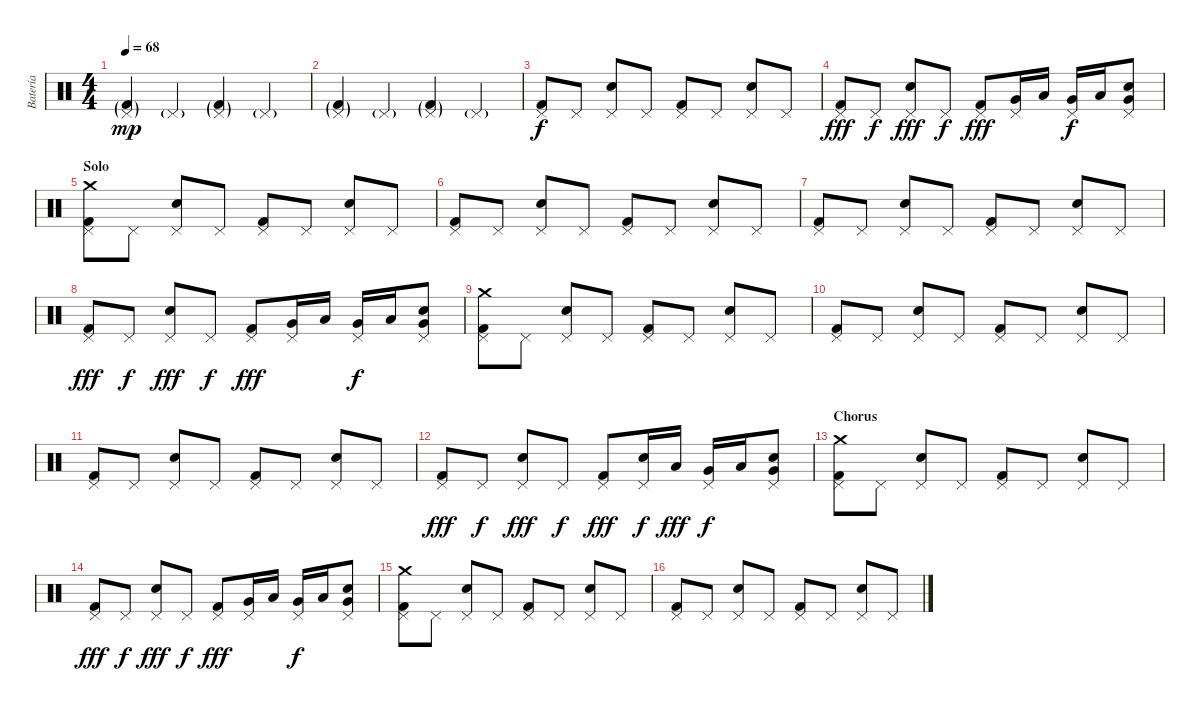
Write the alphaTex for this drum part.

\track ("Batería" "Batería") {instrument percussion}
\staff {score}
\articulation defaults
\ts (4 4)
\tempo 68
\clef neutral
\ks c
("Pedal Hi-Hat (hit)"{g} "Kick (hit) 2"{g}).4{dy mp} "Pedal Hi-Hat (hit)"{g}.4 ("Pedal Hi-Hat (hit)"{g} "Kick (hit) 2"{g}).4 "Pedal Hi-Hat (hit)"{g}.4 |
("Pedal Hi-Hat (hit)"{g} "Kick (hit) 2"{g}).4 "Pedal Hi-Hat (hit)"{g}.4 ("Pedal Hi-Hat (hit)"{g} "Kick (hit) 2"{g}).4 "Pedal Hi-Hat (hit)"{g}.4 |
("Pedal Hi-Hat (hit)" "Kick (hit) 2").8{dy f} "Pedal Hi-Hat (hit)".8 ("Pedal Hi-Hat (hit)" "Electric Snare (hit)").8 "Pedal Hi-Hat (hit)".8 ("Pedal Hi-Hat (hit)" "Kick (hit) 2").8 "Pedal Hi-Hat (hit)".8 ("Pedal Hi-Hat (hit)" "Electric Snare (hit)").8 "Pedal Hi-Hat (hit)".8 |
("Pedal Hi-Hat (hit)" "Kick (hit) 2").8{dy fff} "Pedal Hi-Hat (hit)".8{dy f} ("Pedal Hi-Hat (hit)" "Electric Snare (hit)").8{dy fff} "Pedal Hi-Hat (hit)".8{dy f} ("Pedal Hi-Hat (hit)" "Kick (hit) 2").8{dy fff} ("Pedal Hi-Hat (hit)" "Very Low Tom (hit)").16 "Low Floor Tom (hit)".16 ("Pedal Hi-Hat (hit)" "Very Low Tom (hit)").16{dy f} "Low Floor Tom (hit)".16 ("Pedal Hi-Hat (hit)" "Electric Snare (hit)" "Very Low Tom (hit)").8 |
\section ("" "Solo")
("Pedal Hi-Hat (hit)" "Kick (hit) 2" "Crash medium (hit)").8 "Pedal Hi-Hat (hit)".8 ("Pedal Hi-Hat (hit)" "Electric Snare (hit)").8 "Pedal Hi-Hat (hit)".8 ("Pedal Hi-Hat (hit)" "Kick (hit) 2").8 "Pedal Hi-Hat (hit)".8 ("Pedal Hi-Hat (hit)" "Electric Snare (hit)").8 "Pedal Hi-Hat (hit)".8 |
("Pedal Hi-Hat (hit)" "Kick (hit) 2").8 "Pedal Hi-Hat (hit)".8 ("Pedal Hi-Hat (hit)" "Electric Snare (hit)").8 "Pedal Hi-Hat (hit)".8 ("Pedal Hi-Hat (hit)" "Kick (hit) 2").8 "Pedal Hi-Hat (hit)".8 ("Pedal Hi-Hat (hit)" "Electric Snare (hit)").8 "Pedal Hi-Hat (hit)".8 |
("Pedal Hi-Hat (hit)" "Kick (hit) 2").8 "Pedal Hi-Hat (hit)".8 ("Pedal Hi-Hat (hit)" "Electric Snare (hit)").8 "Pedal Hi-Hat (hit)".8 ("Pedal Hi-Hat (hit)" "Kick (hit) 2").8 "Pedal Hi-Hat (hit)".8 ("Pedal Hi-Hat (hit)" "Electric Snare (hit)").8 "Pedal Hi-Hat (hit)".8 |
("Pedal Hi-Hat (hit)" "Kick (hit) 2").8{dy fff} "Pedal Hi-Hat (hit)".8{dy f} ("Pedal Hi-Hat (hit)" "Electric Snare (hit)").8{dy fff} "Pedal Hi-Hat (hit)".8{dy f} ("Pedal Hi-Hat (hit)" "Kick (hit) 2").8{dy fff} ("Pedal Hi-Hat (hit)" "Very Low Tom (hit)").16 "Low Floor Tom (hit)".16 ("Pedal Hi-Hat (hit)" "Very Low Tom (hit)").16{dy f} "Low Floor Tom (hit)".16 ("Pedal Hi-Hat (hit)" "Electric Snare (hit)" "Very Low Tom (hit)").8 |
("Pedal Hi-Hat (hit)" "Kick (hit) 2" "Crash medium (hit)").8 "Pedal Hi-Hat (hit)".8 ("Pedal Hi-Hat (hit)" "Electric Snare (hit)").8 "Pedal Hi-Hat (hit)".8 ("Pedal Hi-Hat (hit)" "Kick (hit) 2").8 "Pedal Hi-Hat (hit)".8 ("Pedal Hi-Hat (hit)" "Electric Snare (hit)").8 "Pedal Hi-Hat (hit)".8 |
("Pedal Hi-Hat (hit)" "Kick (hit) 2").8 "Pedal Hi-Hat (hit)".8 ("Pedal Hi-Hat (hit)" "Electric Snare (hit)").8 "Pedal Hi-Hat (hit)".8 ("Pedal Hi-Hat (hit)" "Kick (hit) 2").8 "Pedal Hi-Hat (hit)".8 ("Pedal Hi-Hat (hit)" "Electric Snare (hit)").8 "Pedal Hi-Hat (hit)".8 |
("Pedal Hi-Hat (hit)" "Kick (hit) 2").8 "Pedal Hi-Hat (hit)".8 ("Pedal Hi-Hat (hit)" "Electric Snare (hit)").8 "Pedal Hi-Hat (hit)".8 ("Pedal Hi-Hat (hit)" "Kick (hit) 2").8 "Pedal Hi-Hat (hit)".8 ("Pedal Hi-Hat (hit)" "Electric Snare (hit)").8 "Pedal Hi-Hat (hit)".8 |
("Pedal Hi-Hat (hit)" "Kick (hit) 2").8{dy fff} "Pedal Hi-Hat (hit)".8{dy f} ("Pedal Hi-Hat (hit)" "Electric Snare (hit)").8{dy fff} "Pedal Hi-Hat (hit)".8{dy f} ("Pedal Hi-Hat (hit)" "Kick (hit) 2").8{dy fff} ("Pedal Hi-Hat (hit)" "Electric Snare (hit)").16{dy f} "Low Floor Tom (hit)".16{dy fff} ("Pedal Hi-Hat (hit)" "Very Low Tom (hit)").16{dy f} "Low Floor Tom (hit)".16 ("Pedal Hi-Hat (hit)" "Electric Snare (hit)" "Very Low Tom (hit)").8 |
\section ("" "Chorus")
("Pedal Hi-Hat (hit)" "Kick (hit) 2" "Crash medium (hit)").8 "Pedal Hi-Hat (hit)".8 ("Pedal Hi-Hat (hit)" "Electric Snare (hit)").8 "Pedal Hi-Hat (hit)".8 ("Pedal Hi-Hat (hit)" "Kick (hit) 2").8 "Pedal Hi-Hat (hit)".8 ("Pedal Hi-Hat (hit)" "Electric Snare (hit)").8 "Pedal Hi-Hat (hit)".8 |
("Pedal Hi-Hat (hit)" "Kick (hit) 2").8{dy fff} "Pedal Hi-Hat (hit)".8{dy f} ("Pedal Hi-Hat (hit)" "Electric Snare (hit)").8{dy fff} "Pedal Hi-Hat (hit)".8{dy f} ("Pedal Hi-Hat (hit)" "Kick (hit) 2").8{dy fff} ("Pedal Hi-Hat (hit)" "Very Low Tom (hit)").16 "Low Floor Tom (hit)".16 ("Pedal Hi-Hat (hit)" "Very Low Tom (hit)").16{dy f} "Low Floor Tom (hit)".16 ("Pedal Hi-Hat (hit)" "Electric Snare (hit)" "Very Low Tom (hit)").8 |
("Pedal Hi-Hat (hit)" "Kick (hit) 2" "Crash medium (hit)").8 "Pedal Hi-Hat (hit)".8 ("Pedal Hi-Hat (hit)" "Electric Snare (hit)").8 "Pedal Hi-Hat (hit)".8 ("Pedal Hi-Hat (hit)" "Kick (hit) 2").8 "Pedal Hi-Hat (hit)".8 ("Pedal Hi-Hat (hit)" "Electric Snare (hit)").8 "Pedal Hi-Hat (hit)".8 |
("Pedal Hi-Hat (hit)" "Kick (hit) 2").8 "Pedal Hi-Hat (hit)".8 ("Pedal Hi-Hat (hit)" "Electric Snare (hit)").8 "Pedal Hi-Hat (hit)".8 ("Pedal Hi-Hat (hit)" "Kick (hit) 2").8 "Pedal Hi-Hat (hit)".8 ("Pedal Hi-Hat (hit)" "Electric Snare (hit)").8 "Pedal Hi-Hat (hit)".8
